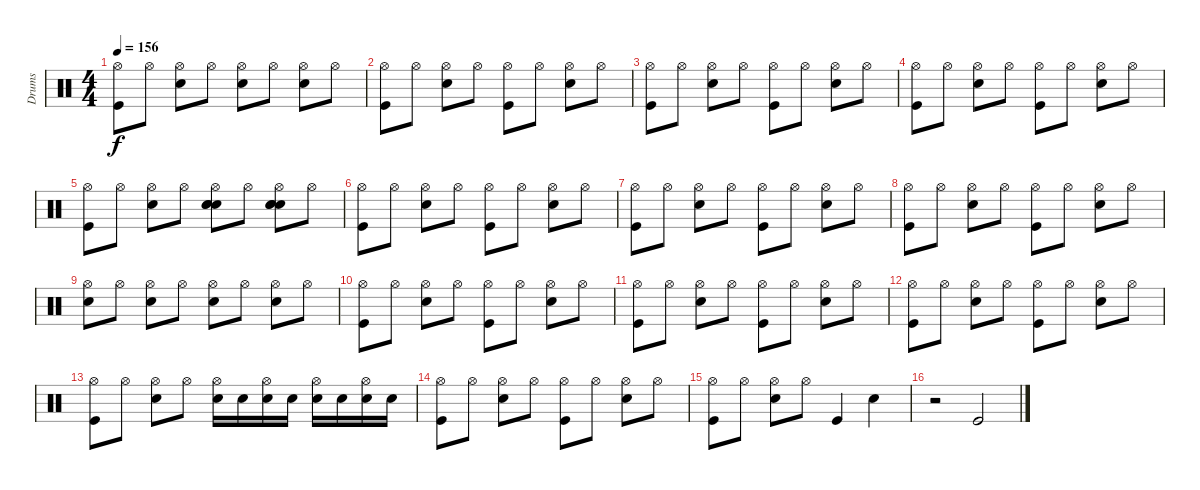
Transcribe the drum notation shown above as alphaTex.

\track ("Drums" "Drums") {instrument percussion}
\staff {score}
\articulation defaults
\ts (4 4)
\tempo 156
\clef neutral
\ks c
("Hi-Hat (open)" "Kick (hit)").8{dy f} "Hi-Hat (open)".8 ("Hi-Hat (open)" "Electric Snare (hit)").8 "Hi-Hat (open)".8 ("Hi-Hat (open)" "Electric Snare (hit)").8 "Hi-Hat (open)".8 ("Hi-Hat (open)" "Electric Snare (hit)").8 "Hi-Hat (open)".8 |
("Hi-Hat (open)" "Kick (hit)").8 "Hi-Hat (open)".8 ("Hi-Hat (open)" "Electric Snare (hit)").8 "Hi-Hat (open)".8 ("Hi-Hat (open)" "Kick (hit)").8 "Hi-Hat (open)".8 ("Hi-Hat (open)" "Electric Snare (hit)").8 "Hi-Hat (open)".8 |
("Hi-Hat (open)" "Kick (hit)").8 "Hi-Hat (open)".8 ("Hi-Hat (open)" "Electric Snare (hit)").8 "Hi-Hat (open)".8 ("Hi-Hat (open)" "Kick (hit)").8 "Hi-Hat (open)".8 ("Hi-Hat (open)" "Electric Snare (hit)").8 "Hi-Hat (open)".8 |
("Hi-Hat (open)" "Kick (hit)").8 "Hi-Hat (open)".8 ("Hi-Hat (open)" "Electric Snare (hit)").8 "Hi-Hat (open)".8 ("Hi-Hat (open)" "Kick (hit)").8 "Hi-Hat (open)".8 ("Hi-Hat (open)" "Electric Snare (hit)").8 "Hi-Hat (open)".8 |
("Hi-Hat (open)" "Kick (hit)").8 "Hi-Hat (open)".8 ("Hi-Hat (open)" "Electric Snare (hit)").8 "Hi-Hat (open)".8 ("Electric Snare (hit)" "Electric Snare (hit)" "Hi-Hat (open)" "Electric Snare (hit)").8 "Hi-Hat (open)".8 ("Electric Snare (hit)" "Electric Snare (hit)" "Hi-Hat (open)" "Electric Snare (hit)").8 "Hi-Hat (open)".8 |
("Hi-Hat (open)" "Kick (hit)").8 "Hi-Hat (open)".8 ("Hi-Hat (open)" "Electric Snare (hit)").8 "Hi-Hat (open)".8 ("Hi-Hat (open)" "Kick (hit)").8 "Hi-Hat (open)".8 ("Hi-Hat (open)" "Electric Snare (hit)").8 "Hi-Hat (open)".8 |
("Hi-Hat (open)" "Kick (hit)").8 "Hi-Hat (open)".8 ("Hi-Hat (open)" "Electric Snare (hit)").8 "Hi-Hat (open)".8 ("Hi-Hat (open)" "Kick (hit)").8 "Hi-Hat (open)".8 ("Hi-Hat (open)" "Electric Snare (hit)").8 "Hi-Hat (open)".8 |
("Hi-Hat (open)" "Kick (hit)").8 "Hi-Hat (open)".8 ("Hi-Hat (open)" "Electric Snare (hit)").8 "Hi-Hat (open)".8 ("Hi-Hat (open)" "Kick (hit)").8 "Hi-Hat (open)".8 ("Hi-Hat (open)" "Electric Snare (hit)").8 "Hi-Hat (open)".8 |
("Hi-Hat (open)" "Electric Snare (hit)").8 "Hi-Hat (open)".8 ("Hi-Hat (open)" "Electric Snare (hit)").8 "Hi-Hat (open)".8 ("Hi-Hat (open)" "Electric Snare (hit)").8 "Hi-Hat (open)".8 ("Hi-Hat (open)" "Electric Snare (hit)").8 "Hi-Hat (open)".8 |
("Hi-Hat (open)" "Kick (hit)").8 "Hi-Hat (open)".8 ("Hi-Hat (open)" "Electric Snare (hit)").8 "Hi-Hat (open)".8 ("Hi-Hat (open)" "Kick (hit)").8 "Hi-Hat (open)".8 ("Hi-Hat (open)" "Electric Snare (hit)").8 "Hi-Hat (open)".8 |
("Hi-Hat (open)" "Kick (hit)").8 "Hi-Hat (open)".8 ("Hi-Hat (open)" "Electric Snare (hit)").8 "Hi-Hat (open)".8 ("Hi-Hat (open)" "Kick (hit)").8 "Hi-Hat (open)".8 ("Hi-Hat (open)" "Electric Snare (hit)").8 "Hi-Hat (open)".8 |
("Hi-Hat (open)" "Kick (hit)").8 "Hi-Hat (open)".8 ("Hi-Hat (open)" "Electric Snare (hit)").8 "Hi-Hat (open)".8 ("Hi-Hat (open)" "Kick (hit)").8 "Hi-Hat (open)".8 ("Hi-Hat (open)" "Electric Snare (hit)").8 "Hi-Hat (open)".8 |
("Hi-Hat (open)" "Kick (hit)").8 "Hi-Hat (open)".8 ("Hi-Hat (open)" "Electric Snare (hit)").8 "Hi-Hat (open)".8 ("Hi-Hat (open)" "Electric Snare (hit)").16 "Electric Snare (hit)".16 ("Hi-Hat (open)" "Electric Snare (hit)").16 "Electric Snare (hit)".16 ("Hi-Hat (open)" "Electric Snare (hit)").16 "Electric Snare (hit)".16 ("Hi-Hat (open)" "Electric Snare (hit)").16 "Electric Snare (hit)".16 |
("Hi-Hat (open)" "Kick (hit)").8 "Hi-Hat (open)".8 ("Hi-Hat (open)" "Electric Snare (hit)").8 "Hi-Hat (open)".8 ("Hi-Hat (open)" "Kick (hit)").8 "Hi-Hat (open)".8 ("Hi-Hat (open)" "Electric Snare (hit)").8 "Hi-Hat (open)".8 |
("Hi-Hat (open)" "Kick (hit)").8 "Hi-Hat (open)".8 ("Hi-Hat (open)" "Electric Snare (hit)").8 "Hi-Hat (open)".8 "Kick (hit)".4 "Snare (hit) 2".4 |
r.2 "Kick (hit)".2
